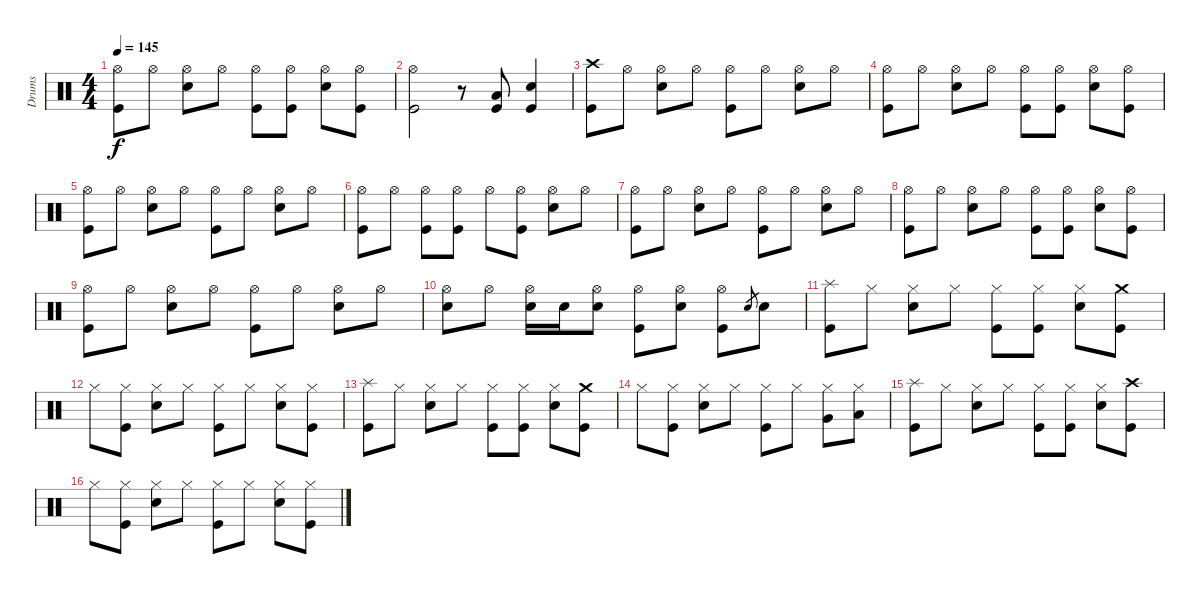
\track ("Drums" "Drums") {instrument percussion}
\staff {score}
\articulation defaults
\ts (4 4)
\tempo 145
\clef neutral
\ks c
("Hi-Hat (open)" "Kick (hit)").8{dy f} "Hi-Hat (open)".8 ("Hi-Hat (open)" "Snare (hit) 2").8 "Hi-Hat (open)".8 ("Hi-Hat (open)" "Kick (hit)").8 ("Hi-Hat (open)" "Kick (hit)").8 ("Hi-Hat (open)" "Snare (hit) 2").8 ("Hi-Hat (open)" "Kick (hit)").8 |
("Hi-Hat (open)" "Kick (hit)").2 r.8 ("Low Floor Tom (hit)" "Kick (hit)").8 ("Snare (hit) 2" "Kick (hit)").4 |
("Crash high (hit)" "Kick (hit)").8 "Hi-Hat (open)".8 ("Hi-Hat (open)" "Snare (hit) 2").8 "Hi-Hat (open)".8 ("Hi-Hat (open)" "Kick (hit)").8 "Hi-Hat (open)".8 ("Hi-Hat (open)" "Snare (hit) 2").8 "Hi-Hat (open)".8 |
("Hi-Hat (open)" "Kick (hit)").8 "Hi-Hat (open)".8 ("Hi-Hat (open)" "Snare (hit) 2").8 "Hi-Hat (open)".8 ("Hi-Hat (open)" "Kick (hit)").8 ("Hi-Hat (open)" "Kick (hit)").8 ("Hi-Hat (open)" "Snare (hit) 2").8 ("Hi-Hat (open)" "Kick (hit)").8 |
("Hi-Hat (open)" "Kick (hit)").8 "Hi-Hat (open)".8 ("Hi-Hat (open)" "Snare (hit) 2").8 "Hi-Hat (open)".8 ("Hi-Hat (open)" "Kick (hit)").8 "Hi-Hat (open)".8 ("Hi-Hat (open)" "Snare (hit) 2").8 "Hi-Hat (open)".8 |
("Hi-Hat (open)" "Kick (hit)").8 "Hi-Hat (open)".8 ("Hi-Hat (open)" "Kick (hit)").8 ("Hi-Hat (open)" "Kick (hit)").8 "Hi-Hat (open)".8 ("Hi-Hat (open)" "Kick (hit)").8 ("Hi-Hat (open)" "Snare (hit) 2").8 "Hi-Hat (open)".8 |
("Hi-Hat (open)" "Kick (hit)").8 "Hi-Hat (open)".8 ("Hi-Hat (open)" "Snare (hit) 2").8 "Hi-Hat (open)".8 ("Hi-Hat (open)" "Kick (hit)").8 "Hi-Hat (open)".8 ("Hi-Hat (open)" "Snare (hit) 2").8 "Hi-Hat (open)".8 |
("Hi-Hat (open)" "Kick (hit)").8 "Hi-Hat (open)".8 ("Hi-Hat (open)" "Snare (hit) 2").8 "Hi-Hat (open)".8 ("Hi-Hat (open)" "Kick (hit)").8 ("Hi-Hat (open)" "Kick (hit)").8 ("Hi-Hat (open)" "Snare (hit) 2").8 ("Hi-Hat (open)" "Kick (hit)").8 |
("Hi-Hat (open)" "Kick (hit)").8 "Hi-Hat (open)".8 ("Hi-Hat (open)" "Snare (hit) 2").8 "Hi-Hat (open)".8 ("Hi-Hat (open)" "Kick (hit)").8 "Hi-Hat (open)".8 ("Hi-Hat (open)" "Snare (hit) 2").8 "Hi-Hat (open)".8 |
("Hi-Hat (open)" "Snare (hit) 2").8 "Hi-Hat (open)".8 ("Hi-Hat (open)" "Snare (hit) 2").16 "Snare (hit) 2".16 ("Hi-Hat (open)" "Snare (hit) 2").8 ("Hi-Hat (open)" "Kick (hit)").8 ("Hi-Hat (open)" "Snare (hit) 2").8 ("Hi-Hat (open)" "Kick (hit)").8 "Snare (hit) 2".8{gr} "Snare (hit) 2".8 |
("Splash (hit)" "Kick (hit)").8 "Hi-Hat (closed)".8 ("Hi-Hat (closed)" "Snare (hit) 2").8 "Hi-Hat (closed)".8 ("Hi-Hat (closed)" "Kick (hit)").8 ("Hi-Hat (closed)" "Kick (hit)").8 ("Hi-Hat (closed)" "Snare (hit) 2").8 ("Crash medium (hit)" "Kick (hit)").8 |
"Hi-Hat (closed)".8 ("Hi-Hat (closed)" "Kick (hit)").8 ("Hi-Hat (closed)" "Snare (hit) 2").8 "Hi-Hat (closed)".8 ("Hi-Hat (closed)" "Kick (hit)").8 "Hi-Hat (closed)".8 ("Hi-Hat (closed)" "Snare (hit) 2").8 ("Hi-Hat (closed)" "Kick (hit)").8 |
("Splash (hit)" "Kick (hit)").8 "Hi-Hat (closed)".8 ("Hi-Hat (closed)" "Snare (hit) 2").8 "Hi-Hat (closed)".8 ("Hi-Hat (closed)" "Kick (hit)").8 ("Hi-Hat (closed)" "Kick (hit)").8 ("Hi-Hat (closed)" "Snare (hit) 2").8 ("Crash medium (hit)" "Kick (hit)").8 |
"Hi-Hat (closed)".8 ("Hi-Hat (closed)" "Kick (hit)").8 ("Hi-Hat (closed)" "Snare (hit) 2").8 "Hi-Hat (closed)".8 ("Hi-Hat (closed)" "Kick (hit)").8 "Hi-Hat (closed)".8 ("Hi-Hat (closed)" "Very Low Tom (hit)").8 ("Hi-Hat (closed)" "Low Floor Tom (hit)").8 |
("Splash (hit)" "Kick (hit)").8 "Hi-Hat (closed)".8 ("Hi-Hat (closed)" "Snare (hit) 2").8 "Hi-Hat (closed)".8 ("Hi-Hat (closed)" "Kick (hit)").8 ("Hi-Hat (closed)" "Kick (hit)").8 ("Hi-Hat (closed)" "Snare (hit) 2").8 ("Crash high (hit)" "Kick (hit)").8 |
"Hi-Hat (closed)".8 ("Hi-Hat (closed)" "Kick (hit)").8 ("Hi-Hat (closed)" "Snare (hit) 2").8 "Hi-Hat (closed)".8 ("Hi-Hat (closed)" "Kick (hit)").8 "Hi-Hat (closed)".8 ("Hi-Hat (closed)" "Snare (hit) 2").8 ("Hi-Hat (closed)" "Kick (hit)").8
